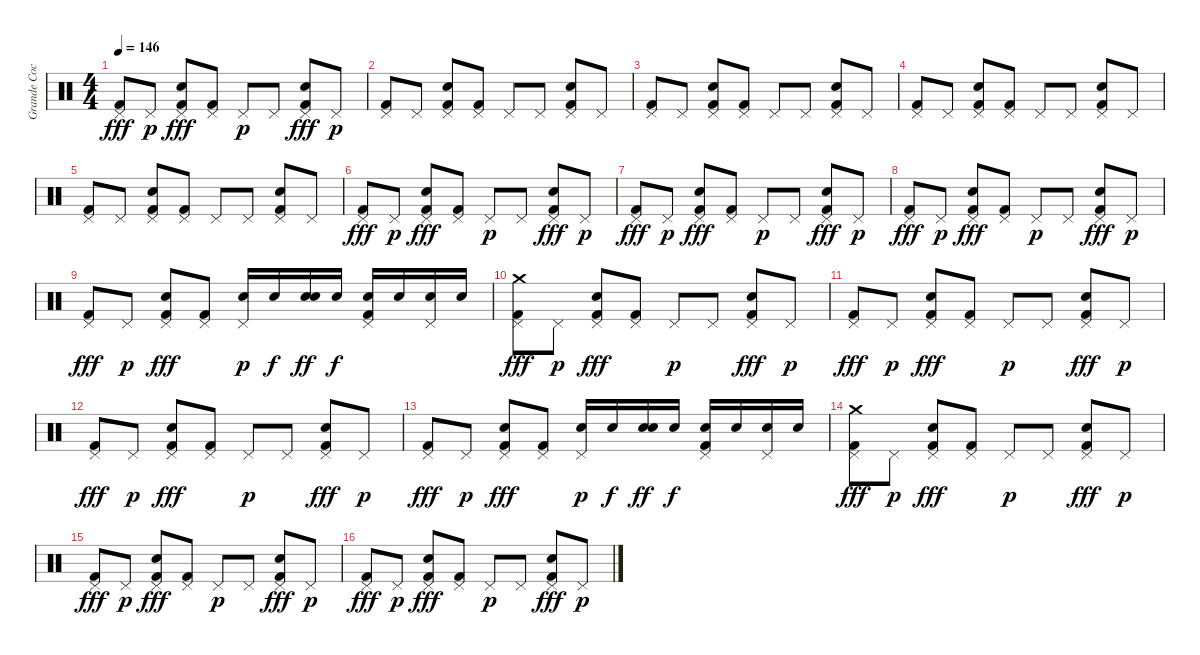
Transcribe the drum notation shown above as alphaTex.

\track ("Grande Coco !" "Grande Coc") {instrument percussion}
\staff {score}
\articulation defaults
\ts (4 4)
\tempo 146
\clef neutral
\ks c
("Pedal Hi-Hat (hit)" "Kick (hit) 2").8{dy fff} "Pedal Hi-Hat (hit)".8{dy p} ("Pedal Hi-Hat (hit)" "Electric Snare (hit)" "Kick (hit) 2").8{dy fff} ("Pedal Hi-Hat (hit)" "Kick (hit) 2").8 "Pedal Hi-Hat (hit)".8{dy p} "Pedal Hi-Hat (hit)".8 ("Pedal Hi-Hat (hit)" "Electric Snare (hit)" "Kick (hit) 2").8{dy fff} "Pedal Hi-Hat (hit)".8{dy p} |
("Pedal Hi-Hat (hit)" "Kick (hit) 2").8 "Pedal Hi-Hat (hit)".8 ("Pedal Hi-Hat (hit)" "Electric Snare (hit)" "Kick (hit) 2").8 ("Pedal Hi-Hat (hit)" "Kick (hit) 2").8 "Pedal Hi-Hat (hit)".8 "Pedal Hi-Hat (hit)".8 ("Pedal Hi-Hat (hit)" "Electric Snare (hit)" "Kick (hit) 2").8 "Pedal Hi-Hat (hit)".8 |
("Pedal Hi-Hat (hit)" "Kick (hit) 2").8 "Pedal Hi-Hat (hit)".8 ("Pedal Hi-Hat (hit)" "Electric Snare (hit)" "Kick (hit) 2").8 ("Pedal Hi-Hat (hit)" "Kick (hit) 2").8 "Pedal Hi-Hat (hit)".8 "Pedal Hi-Hat (hit)".8 ("Pedal Hi-Hat (hit)" "Electric Snare (hit)" "Kick (hit) 2").8 "Pedal Hi-Hat (hit)".8 |
("Pedal Hi-Hat (hit)" "Kick (hit) 2").8 "Pedal Hi-Hat (hit)".8 ("Pedal Hi-Hat (hit)" "Electric Snare (hit)" "Kick (hit) 2").8 ("Pedal Hi-Hat (hit)" "Kick (hit) 2").8 "Pedal Hi-Hat (hit)".8 "Pedal Hi-Hat (hit)".8 ("Pedal Hi-Hat (hit)" "Electric Snare (hit)" "Kick (hit) 2").8 "Pedal Hi-Hat (hit)".8 |
("Pedal Hi-Hat (hit)" "Kick (hit) 2").8 "Pedal Hi-Hat (hit)".8 ("Pedal Hi-Hat (hit)" "Electric Snare (hit)" "Kick (hit) 2").8 ("Pedal Hi-Hat (hit)" "Kick (hit) 2").8 "Pedal Hi-Hat (hit)".8 "Pedal Hi-Hat (hit)".8 ("Pedal Hi-Hat (hit)" "Electric Snare (hit)" "Kick (hit) 2").8 "Pedal Hi-Hat (hit)".8 |
("Pedal Hi-Hat (hit)" "Kick (hit) 2").8{dy fff} "Pedal Hi-Hat (hit)".8{dy p} ("Pedal Hi-Hat (hit)" "Electric Snare (hit)" "Kick (hit) 2").8{dy fff} ("Pedal Hi-Hat (hit)" "Kick (hit) 2").8 "Pedal Hi-Hat (hit)".8{dy p} "Pedal Hi-Hat (hit)".8 ("Pedal Hi-Hat (hit)" "Electric Snare (hit)" "Kick (hit) 2").8{dy fff} "Pedal Hi-Hat (hit)".8{dy p} |
("Pedal Hi-Hat (hit)" "Kick (hit) 2").8{dy fff} "Pedal Hi-Hat (hit)".8{dy p} ("Pedal Hi-Hat (hit)" "Electric Snare (hit)" "Kick (hit) 2").8{dy fff} ("Pedal Hi-Hat (hit)" "Kick (hit) 2").8 "Pedal Hi-Hat (hit)".8{dy p} "Pedal Hi-Hat (hit)".8 ("Pedal Hi-Hat (hit)" "Electric Snare (hit)" "Kick (hit) 2").8{dy fff} "Pedal Hi-Hat (hit)".8{dy p} |
("Pedal Hi-Hat (hit)" "Kick (hit) 2").8{dy fff} "Pedal Hi-Hat (hit)".8{dy p} ("Pedal Hi-Hat (hit)" "Electric Snare (hit)" "Kick (hit) 2").8{dy fff} ("Pedal Hi-Hat (hit)" "Kick (hit) 2").8 "Pedal Hi-Hat (hit)".8{dy p} "Pedal Hi-Hat (hit)".8 ("Pedal Hi-Hat (hit)" "Electric Snare (hit)" "Kick (hit) 2").8{dy fff} "Pedal Hi-Hat (hit)".8{dy p} |
("Pedal Hi-Hat (hit)" "Kick (hit) 2").8{dy fff} "Pedal Hi-Hat (hit)".8{dy p} ("Pedal Hi-Hat (hit)" "Electric Snare (hit)" "Kick (hit) 2").8{dy fff} ("Pedal Hi-Hat (hit)" "Kick (hit) 2").8 ("Pedal Hi-Hat (hit)" "Electric Snare (hit)").16{dy p} "Electric Snare (hit)".16{dy f} ("Electric Snare (hit)" "Electric Snare (hit)").16{dy ff} "Electric Snare (hit)".16{dy f} ("Pedal Hi-Hat (hit)" "Electric Snare (hit)" "Kick (hit) 2").16 "Electric Snare (hit)".16 ("Pedal Hi-Hat (hit)" "Electric Snare (hit)").16 "Electric Snare (hit)".16 |
("Pedal Hi-Hat (hit)" "Crash medium (hit)" "Kick (hit) 2").8{dy fff} "Pedal Hi-Hat (hit)".8{dy p} ("Pedal Hi-Hat (hit)" "Electric Snare (hit)" "Kick (hit) 2").8{dy fff} ("Pedal Hi-Hat (hit)" "Kick (hit) 2").8 "Pedal Hi-Hat (hit)".8{dy p} "Pedal Hi-Hat (hit)".8 ("Pedal Hi-Hat (hit)" "Electric Snare (hit)" "Kick (hit) 2").8{dy fff} "Pedal Hi-Hat (hit)".8{dy p} |
("Pedal Hi-Hat (hit)" "Kick (hit) 2").8{dy fff} "Pedal Hi-Hat (hit)".8{dy p} ("Pedal Hi-Hat (hit)" "Electric Snare (hit)" "Kick (hit) 2").8{dy fff} ("Pedal Hi-Hat (hit)" "Kick (hit) 2").8 "Pedal Hi-Hat (hit)".8{dy p} "Pedal Hi-Hat (hit)".8 ("Pedal Hi-Hat (hit)" "Electric Snare (hit)" "Kick (hit) 2").8{dy fff} "Pedal Hi-Hat (hit)".8{dy p} |
("Pedal Hi-Hat (hit)" "Kick (hit) 2").8{dy fff} "Pedal Hi-Hat (hit)".8{dy p} ("Pedal Hi-Hat (hit)" "Electric Snare (hit)" "Kick (hit) 2").8{dy fff} ("Pedal Hi-Hat (hit)" "Kick (hit) 2").8 "Pedal Hi-Hat (hit)".8{dy p} "Pedal Hi-Hat (hit)".8 ("Pedal Hi-Hat (hit)" "Electric Snare (hit)" "Kick (hit) 2").8{dy fff} "Pedal Hi-Hat (hit)".8{dy p} |
("Pedal Hi-Hat (hit)" "Kick (hit) 2").8{dy fff} "Pedal Hi-Hat (hit)".8{dy p} ("Pedal Hi-Hat (hit)" "Electric Snare (hit)" "Kick (hit) 2").8{dy fff} ("Pedal Hi-Hat (hit)" "Kick (hit) 2").8 ("Pedal Hi-Hat (hit)" "Electric Snare (hit)").16{dy p} "Electric Snare (hit)".16{dy f} ("Electric Snare (hit)" "Electric Snare (hit)").16{dy ff} "Electric Snare (hit)".16{dy f} ("Pedal Hi-Hat (hit)" "Electric Snare (hit)" "Kick (hit) 2").16 "Electric Snare (hit)".16 ("Pedal Hi-Hat (hit)" "Electric Snare (hit)").16 "Electric Snare (hit)".16 |
("Pedal Hi-Hat (hit)" "Crash medium (hit)" "Kick (hit) 2").8{dy fff} "Pedal Hi-Hat (hit)".8{dy p} ("Pedal Hi-Hat (hit)" "Electric Snare (hit)" "Kick (hit) 2").8{dy fff} ("Pedal Hi-Hat (hit)" "Kick (hit) 2").8 "Pedal Hi-Hat (hit)".8{dy p} "Pedal Hi-Hat (hit)".8 ("Pedal Hi-Hat (hit)" "Electric Snare (hit)" "Kick (hit) 2").8{dy fff} "Pedal Hi-Hat (hit)".8{dy p} |
("Pedal Hi-Hat (hit)" "Kick (hit) 2").8{dy fff} "Pedal Hi-Hat (hit)".8{dy p} ("Pedal Hi-Hat (hit)" "Electric Snare (hit)" "Kick (hit) 2").8{dy fff} ("Pedal Hi-Hat (hit)" "Kick (hit) 2").8 "Pedal Hi-Hat (hit)".8{dy p} "Pedal Hi-Hat (hit)".8 ("Pedal Hi-Hat (hit)" "Electric Snare (hit)" "Kick (hit) 2").8{dy fff} "Pedal Hi-Hat (hit)".8{dy p} |
("Pedal Hi-Hat (hit)" "Kick (hit) 2").8{dy fff} "Pedal Hi-Hat (hit)".8{dy p} ("Pedal Hi-Hat (hit)" "Electric Snare (hit)" "Kick (hit) 2").8{dy fff} ("Pedal Hi-Hat (hit)" "Kick (hit) 2").8 "Pedal Hi-Hat (hit)".8{dy p} "Pedal Hi-Hat (hit)".8 ("Pedal Hi-Hat (hit)" "Electric Snare (hit)" "Kick (hit) 2").8{dy fff} "Pedal Hi-Hat (hit)".8{dy p}
